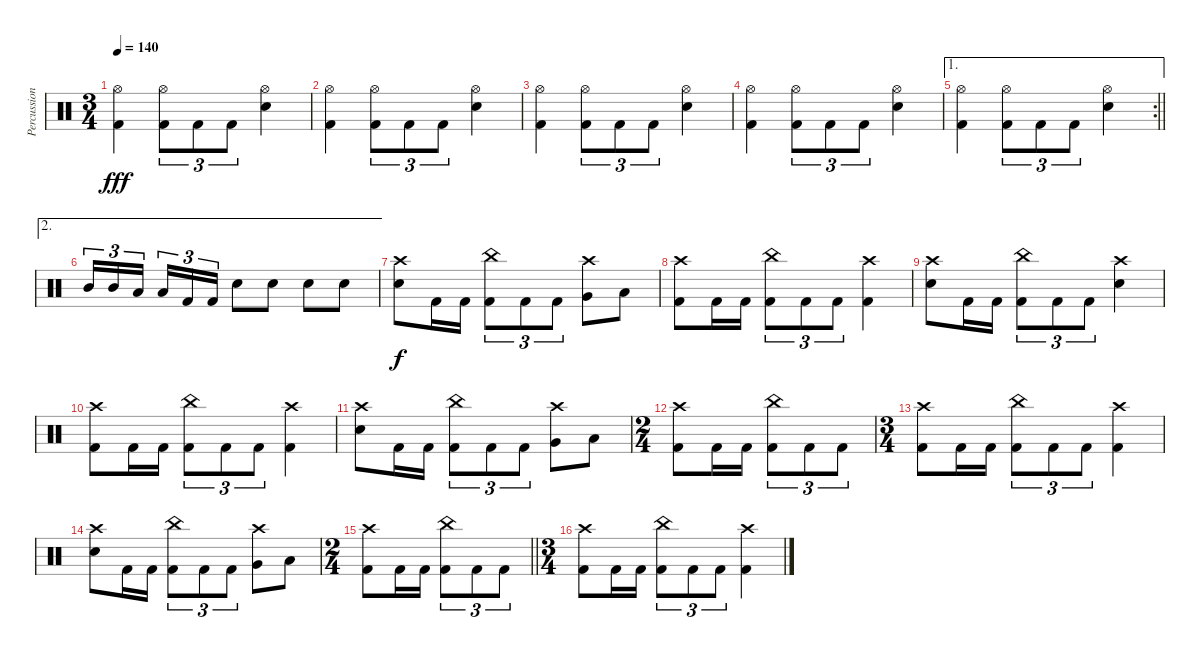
\track ("Percussions" "Percussion") {instrument percussion}
\staff {score}
\articulation defaults
\ts (3 4)
\tempo 140
\clef neutral
\ks c
("Hi-Hat (open)" "Kick (hit) 2").4{dy fff} ("Hi-Hat (open)" "Kick (hit) 2").8{tu (3 2)} "Kick (hit) 2".8{tu (3 2)} "Kick (hit) 2".8{tu (3 2)} ("Hi-Hat (open)" "Electric Snare (hit)").4 |
("Hi-Hat (open)" "Kick (hit) 2").4 ("Hi-Hat (open)" "Kick (hit) 2").8{tu (3 2)} "Kick (hit) 2".8{tu (3 2)} "Kick (hit) 2".8{tu (3 2)} ("Hi-Hat (open)" "Electric Snare (hit)").4 |
("Hi-Hat (open)" "Kick (hit) 2").4 ("Hi-Hat (open)" "Kick (hit) 2").8{tu (3 2)} "Kick (hit) 2".8{tu (3 2)} "Kick (hit) 2".8{tu (3 2)} ("Hi-Hat (open)" "Electric Snare (hit)").4 |
("Hi-Hat (open)" "Kick (hit) 2").4 ("Hi-Hat (open)" "Kick (hit) 2").8{tu (3 2)} "Kick (hit) 2".8{tu (3 2)} "Kick (hit) 2".8{tu (3 2)} ("Hi-Hat (open)" "Electric Snare (hit)").4 |
\ae 1
\rc 2
\barLineRight lightlight
("Hi-Hat (open)" "Kick (hit) 2").4 ("Hi-Hat (open)" "Kick (hit) 2").8{tu (3 2)} "Kick (hit) 2".8{tu (3 2)} "Kick (hit) 2".8{tu (3 2)} ("Hi-Hat (open)" "Electric Snare (hit)").4 |
\ae 2
\section ("" "")
"Mid Tom (hit)".16{tu (3 2)} "Mid Tom (hit)".16{tu (3 2)} "Low Tom (hit)".16{tu (3 2) beam splitsecondary} "Low Tom (hit)".16{tu (3 2)} "Kick (hit) 2".16{tu (3 2)} "Kick (hit) 2".16{tu (3 2)} "Electric Snare (hit)".8 "Electric Snare (hit)".8 "Electric Snare (hit)".8 "Electric Snare (hit)".8 |
("Crash high (hit)" "Electric Snare (hit)").8{dy f} "Kick (hit) 2".16 "Kick (hit) 2".16 ("China (hit)" "Kick (hit) 2").8{tu (3 2)} "Kick (hit) 2".8{tu (3 2)} "Kick (hit) 2".8{tu (3 2)} ("Crash high (hit)" "Very Low Tom (hit)").8 "Low Floor Tom (hit)".8 |
("Crash high (hit)" "Kick (hit) 2").8 "Kick (hit) 2".16 "Kick (hit) 2".16 ("China (hit)" "Kick (hit) 2").8{tu (3 2)} "Kick (hit) 2".8{tu (3 2)} "Kick (hit) 2".8{tu (3 2)} ("Crash high (hit)" "Kick (hit) 2").4 |
("Crash high (hit)" "Electric Snare (hit)").8 "Kick (hit) 2".16 "Kick (hit) 2".16 ("China (hit)" "Kick (hit) 2").8{tu (3 2)} "Kick (hit) 2".8{tu (3 2)} "Kick (hit) 2".8{tu (3 2)} ("Crash high (hit)" "Electric Snare (hit)").4 |
("Crash high (hit)" "Kick (hit) 2").8 "Kick (hit) 2".16 "Kick (hit) 2".16 ("China (hit)" "Kick (hit) 2").8{tu (3 2)} "Kick (hit) 2".8{tu (3 2)} "Kick (hit) 2".8{tu (3 2)} ("Crash high (hit)" "Kick (hit) 2").4 |
("Crash high (hit)" "Electric Snare (hit)").8 "Kick (hit) 2".16 "Kick (hit) 2".16 ("China (hit)" "Kick (hit) 2").8{tu (3 2)} "Kick (hit) 2".8{tu (3 2)} "Kick (hit) 2".8{tu (3 2)} ("Crash high (hit)" "Very Low Tom (hit)").8 "Low Floor Tom (hit)".8 |
\ts (2 4)
("Crash high (hit)" "Kick (hit) 2").8 "Kick (hit) 2".16 "Kick (hit) 2".16 ("China (hit)" "Kick (hit) 2").8{tu (3 2)} "Kick (hit) 2".8{tu (3 2)} "Kick (hit) 2".8{tu (3 2)} |
\ts (3 4)
("Crash high (hit)" "Kick (hit) 2").8 "Kick (hit) 2".16 "Kick (hit) 2".16 ("China (hit)" "Kick (hit) 2").8{tu (3 2)} "Kick (hit) 2".8{tu (3 2)} "Kick (hit) 2".8{tu (3 2)} ("Crash high (hit)" "Kick (hit) 2").4 |
("Crash high (hit)" "Electric Snare (hit)").8 "Kick (hit) 2".16 "Kick (hit) 2".16 ("China (hit)" "Kick (hit) 2").8{tu (3 2)} "Kick (hit) 2".8{tu (3 2)} "Kick (hit) 2".8{tu (3 2)} ("Crash high (hit)" "Very Low Tom (hit)").8 "Low Floor Tom (hit)".8 |
\ts (2 4)
\barLineRight lightlight
("Crash high (hit)" "Kick (hit) 2").8 "Kick (hit) 2".16 "Kick (hit) 2".16 ("China (hit)" "Kick (hit) 2").8{tu (3 2)} "Kick (hit) 2".8{tu (3 2)} "Kick (hit) 2".8{tu (3 2)} |
\ts (3 4)
("Crash high (hit)" "Kick (hit) 2").8 "Kick (hit) 2".16 "Kick (hit) 2".16 ("China (hit)" "Kick (hit) 2").8{tu (3 2)} "Kick (hit) 2".8{tu (3 2)} "Kick (hit) 2".8{tu (3 2)} ("Crash high (hit)" "Kick (hit) 2").4
